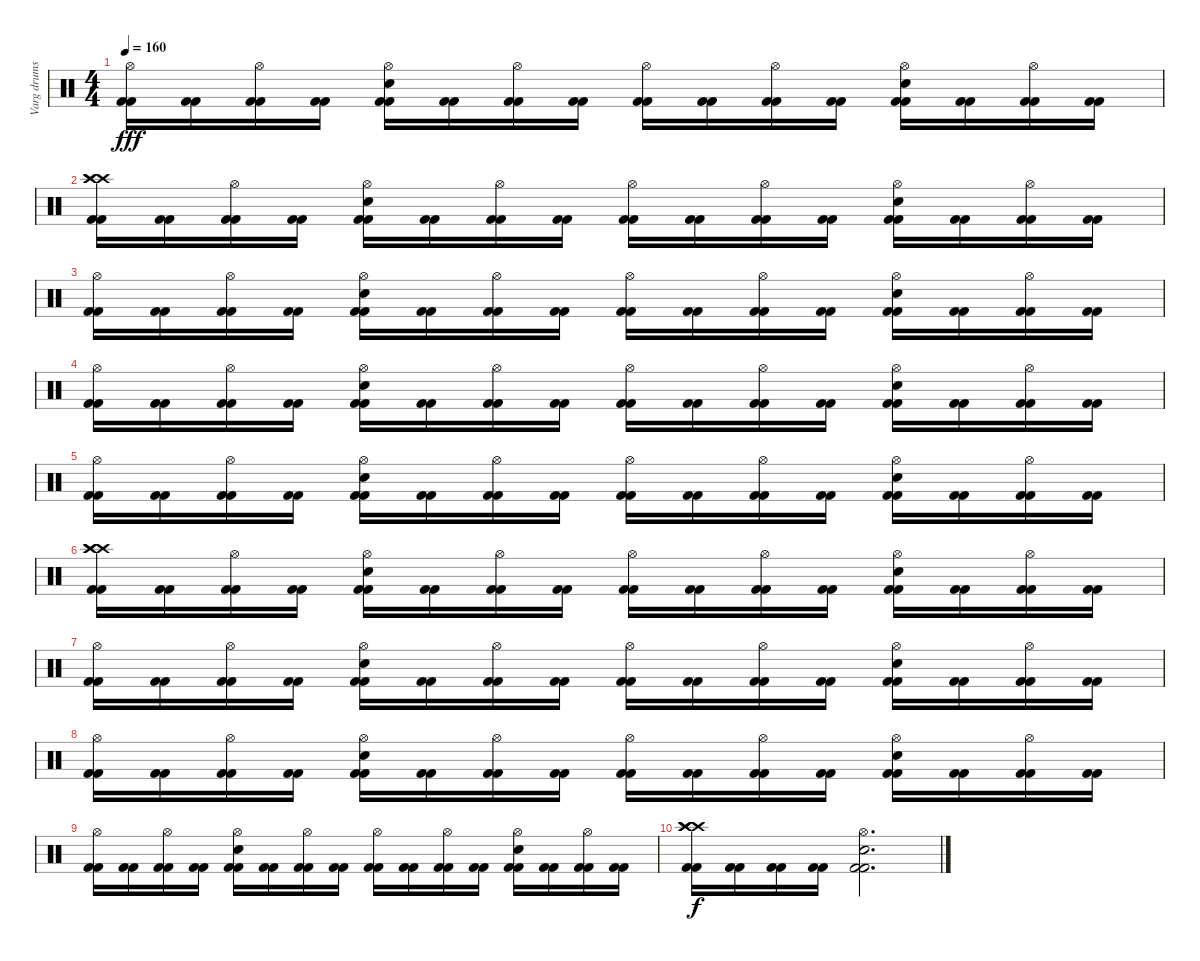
\track ("Varg drums" "Varg drums") {instrument percussion}
\staff {score}
\articulation defaults
\ts (4 4)
\tempo 160
\clef neutral
\ks c
("Hi-Hat (open)" "Kick (hit) 2" "Kick (hit) 2").16{dy fff} ("Kick (hit) 2" "Kick (hit) 2").16 ("Hi-Hat (open)" "Kick (hit) 2" "Kick (hit) 2").16 ("Kick (hit) 2" "Kick (hit) 2").16 ("Hi-Hat (open)" "Electric Snare (hit)" "Kick (hit) 2" "Kick (hit) 2").16 ("Kick (hit) 2" "Kick (hit) 2").16 ("Hi-Hat (open)" "Kick (hit) 2" "Kick (hit) 2").16 ("Kick (hit) 2" "Kick (hit) 2").16 ("Hi-Hat (open)" "Kick (hit) 2" "Kick (hit) 2").16 ("Kick (hit) 2" "Kick (hit) 2").16 ("Hi-Hat (open)" "Kick (hit) 2" "Kick (hit) 2").16 ("Kick (hit) 2" "Kick (hit) 2").16 ("Hi-Hat (open)" "Electric Snare (hit)" "Kick (hit) 2" "Kick (hit) 2").16 ("Kick (hit) 2" "Kick (hit) 2").16 ("Hi-Hat (open)" "Kick (hit) 2" "Kick (hit) 2").16 ("Kick (hit) 2" "Kick (hit) 2").16 |
("Crash high (hit)" "Crash high (hit)" "Crash high (hit)" "Kick (hit) 2" "Kick (hit) 2").16 ("Kick (hit) 2" "Kick (hit) 2").16 ("Hi-Hat (open)" "Kick (hit) 2" "Kick (hit) 2").16 ("Kick (hit) 2" "Kick (hit) 2").16 ("Hi-Hat (open)" "Electric Snare (hit)" "Kick (hit) 2" "Kick (hit) 2").16 ("Kick (hit) 2" "Kick (hit) 2").16 ("Hi-Hat (open)" "Kick (hit) 2" "Kick (hit) 2").16 ("Kick (hit) 2" "Kick (hit) 2").16 ("Hi-Hat (open)" "Kick (hit) 2" "Kick (hit) 2").16 ("Kick (hit) 2" "Kick (hit) 2").16 ("Hi-Hat (open)" "Kick (hit) 2" "Kick (hit) 2").16 ("Kick (hit) 2" "Kick (hit) 2").16 ("Hi-Hat (open)" "Electric Snare (hit)" "Kick (hit) 2" "Kick (hit) 2").16 ("Kick (hit) 2" "Kick (hit) 2").16 ("Hi-Hat (open)" "Kick (hit) 2" "Kick (hit) 2").16 ("Kick (hit) 2" "Kick (hit) 2").16 |
("Hi-Hat (open)" "Kick (hit) 2" "Kick (hit) 2").16 ("Kick (hit) 2" "Kick (hit) 2").16 ("Hi-Hat (open)" "Kick (hit) 2" "Kick (hit) 2").16 ("Kick (hit) 2" "Kick (hit) 2").16 ("Hi-Hat (open)" "Electric Snare (hit)" "Kick (hit) 2" "Kick (hit) 2").16 ("Kick (hit) 2" "Kick (hit) 2").16 ("Hi-Hat (open)" "Kick (hit) 2" "Kick (hit) 2").16 ("Kick (hit) 2" "Kick (hit) 2").16 ("Hi-Hat (open)" "Kick (hit) 2" "Kick (hit) 2").16 ("Kick (hit) 2" "Kick (hit) 2").16 ("Hi-Hat (open)" "Kick (hit) 2" "Kick (hit) 2").16 ("Kick (hit) 2" "Kick (hit) 2").16 ("Hi-Hat (open)" "Electric Snare (hit)" "Kick (hit) 2" "Kick (hit) 2").16 ("Kick (hit) 2" "Kick (hit) 2").16 ("Hi-Hat (open)" "Kick (hit) 2" "Kick (hit) 2").16 ("Kick (hit) 2" "Kick (hit) 2").16 |
("Hi-Hat (open)" "Kick (hit) 2" "Kick (hit) 2").16 ("Kick (hit) 2" "Kick (hit) 2").16 ("Hi-Hat (open)" "Kick (hit) 2" "Kick (hit) 2").16 ("Kick (hit) 2" "Kick (hit) 2").16 ("Hi-Hat (open)" "Electric Snare (hit)" "Kick (hit) 2" "Kick (hit) 2").16 ("Kick (hit) 2" "Kick (hit) 2").16 ("Hi-Hat (open)" "Kick (hit) 2" "Kick (hit) 2").16 ("Kick (hit) 2" "Kick (hit) 2").16 ("Hi-Hat (open)" "Kick (hit) 2" "Kick (hit) 2").16 ("Kick (hit) 2" "Kick (hit) 2").16 ("Hi-Hat (open)" "Kick (hit) 2" "Kick (hit) 2").16 ("Kick (hit) 2" "Kick (hit) 2").16 ("Hi-Hat (open)" "Electric Snare (hit)" "Kick (hit) 2" "Kick (hit) 2").16 ("Kick (hit) 2" "Kick (hit) 2").16 ("Hi-Hat (open)" "Kick (hit) 2" "Kick (hit) 2").16 ("Kick (hit) 2" "Kick (hit) 2").16 |
("Hi-Hat (open)" "Kick (hit) 2" "Kick (hit) 2").16 ("Kick (hit) 2" "Kick (hit) 2").16 ("Hi-Hat (open)" "Kick (hit) 2" "Kick (hit) 2").16 ("Kick (hit) 2" "Kick (hit) 2").16 ("Hi-Hat (open)" "Electric Snare (hit)" "Kick (hit) 2" "Kick (hit) 2").16 ("Kick (hit) 2" "Kick (hit) 2").16 ("Hi-Hat (open)" "Kick (hit) 2" "Kick (hit) 2").16 ("Kick (hit) 2" "Kick (hit) 2").16 ("Hi-Hat (open)" "Kick (hit) 2" "Kick (hit) 2").16 ("Kick (hit) 2" "Kick (hit) 2").16 ("Hi-Hat (open)" "Kick (hit) 2" "Kick (hit) 2").16 ("Kick (hit) 2" "Kick (hit) 2").16 ("Hi-Hat (open)" "Electric Snare (hit)" "Kick (hit) 2" "Kick (hit) 2").16 ("Kick (hit) 2" "Kick (hit) 2").16 ("Hi-Hat (open)" "Kick (hit) 2" "Kick (hit) 2").16 ("Kick (hit) 2" "Kick (hit) 2").16 |
("Crash high (hit)" "Crash high (hit)" "Crash high (hit)" "Kick (hit) 2" "Kick (hit) 2").16 ("Kick (hit) 2" "Kick (hit) 2").16 ("Hi-Hat (open)" "Kick (hit) 2" "Kick (hit) 2").16 ("Kick (hit) 2" "Kick (hit) 2").16 ("Hi-Hat (open)" "Electric Snare (hit)" "Kick (hit) 2" "Kick (hit) 2").16 ("Kick (hit) 2" "Kick (hit) 2").16 ("Hi-Hat (open)" "Kick (hit) 2" "Kick (hit) 2").16 ("Kick (hit) 2" "Kick (hit) 2").16 ("Hi-Hat (open)" "Kick (hit) 2" "Kick (hit) 2").16 ("Kick (hit) 2" "Kick (hit) 2").16 ("Hi-Hat (open)" "Kick (hit) 2" "Kick (hit) 2").16 ("Kick (hit) 2" "Kick (hit) 2").16 ("Hi-Hat (open)" "Electric Snare (hit)" "Kick (hit) 2" "Kick (hit) 2").16 ("Kick (hit) 2" "Kick (hit) 2").16 ("Hi-Hat (open)" "Kick (hit) 2" "Kick (hit) 2").16 ("Kick (hit) 2" "Kick (hit) 2").16 |
("Hi-Hat (open)" "Kick (hit) 2" "Kick (hit) 2").16 ("Kick (hit) 2" "Kick (hit) 2").16 ("Hi-Hat (open)" "Kick (hit) 2" "Kick (hit) 2").16 ("Kick (hit) 2" "Kick (hit) 2").16 ("Hi-Hat (open)" "Electric Snare (hit)" "Kick (hit) 2" "Kick (hit) 2").16 ("Kick (hit) 2" "Kick (hit) 2").16 ("Hi-Hat (open)" "Kick (hit) 2" "Kick (hit) 2").16 ("Kick (hit) 2" "Kick (hit) 2").16 ("Hi-Hat (open)" "Kick (hit) 2" "Kick (hit) 2").16 ("Kick (hit) 2" "Kick (hit) 2").16 ("Hi-Hat (open)" "Kick (hit) 2" "Kick (hit) 2").16 ("Kick (hit) 2" "Kick (hit) 2").16 ("Hi-Hat (open)" "Electric Snare (hit)" "Kick (hit) 2" "Kick (hit) 2").16 ("Kick (hit) 2" "Kick (hit) 2").16 ("Hi-Hat (open)" "Kick (hit) 2" "Kick (hit) 2").16 ("Kick (hit) 2" "Kick (hit) 2").16 |
("Hi-Hat (open)" "Kick (hit) 2" "Kick (hit) 2").16 ("Kick (hit) 2" "Kick (hit) 2").16 ("Hi-Hat (open)" "Kick (hit) 2" "Kick (hit) 2").16 ("Kick (hit) 2" "Kick (hit) 2").16 ("Hi-Hat (open)" "Electric Snare (hit)" "Kick (hit) 2" "Kick (hit) 2").16 ("Kick (hit) 2" "Kick (hit) 2").16 ("Hi-Hat (open)" "Kick (hit) 2" "Kick (hit) 2").16 ("Kick (hit) 2" "Kick (hit) 2").16 ("Hi-Hat (open)" "Kick (hit) 2" "Kick (hit) 2").16 ("Kick (hit) 2" "Kick (hit) 2").16 ("Hi-Hat (open)" "Kick (hit) 2" "Kick (hit) 2").16 ("Kick (hit) 2" "Kick (hit) 2").16 ("Hi-Hat (open)" "Electric Snare (hit)" "Kick (hit) 2" "Kick (hit) 2").16 ("Kick (hit) 2" "Kick (hit) 2").16 ("Hi-Hat (open)" "Kick (hit) 2" "Kick (hit) 2").16 ("Kick (hit) 2" "Kick (hit) 2").16 |
("Hi-Hat (open)" "Kick (hit) 2" "Kick (hit) 2").16 ("Kick (hit) 2" "Kick (hit) 2").16 ("Hi-Hat (open)" "Kick (hit) 2" "Kick (hit) 2").16 ("Kick (hit) 2" "Kick (hit) 2").16 ("Hi-Hat (open)" "Electric Snare (hit)" "Kick (hit) 2" "Kick (hit) 2").16 ("Kick (hit) 2" "Kick (hit) 2").16 ("Hi-Hat (open)" "Kick (hit) 2" "Kick (hit) 2").16 ("Kick (hit) 2" "Kick (hit) 2").16 ("Hi-Hat (open)" "Kick (hit) 2" "Kick (hit) 2").16 ("Kick (hit) 2" "Kick (hit) 2").16 ("Hi-Hat (open)" "Kick (hit) 2" "Kick (hit) 2").16 ("Kick (hit) 2" "Kick (hit) 2").16 ("Hi-Hat (open)" "Electric Snare (hit)" "Kick (hit) 2" "Kick (hit) 2").16 ("Kick (hit) 2" "Kick (hit) 2").16 ("Hi-Hat (open)" "Kick (hit) 2" "Kick (hit) 2").16 ("Kick (hit) 2" "Kick (hit) 2").16 |
("Crash high (hit)" "Crash high (hit)" "Crash high (hit)" "Kick (hit) 2" "Kick (hit) 2").16{dy f} ("Kick (hit) 2" "Kick (hit) 2").16 ("Kick (hit) 2" "Kick (hit) 2").16 ("Kick (hit) 2" "Kick (hit) 2").16 ("Hi-Hat (open)" "Electric Snare (hit)" "Kick (hit) 2" "Kick (hit) 2").2{d}
